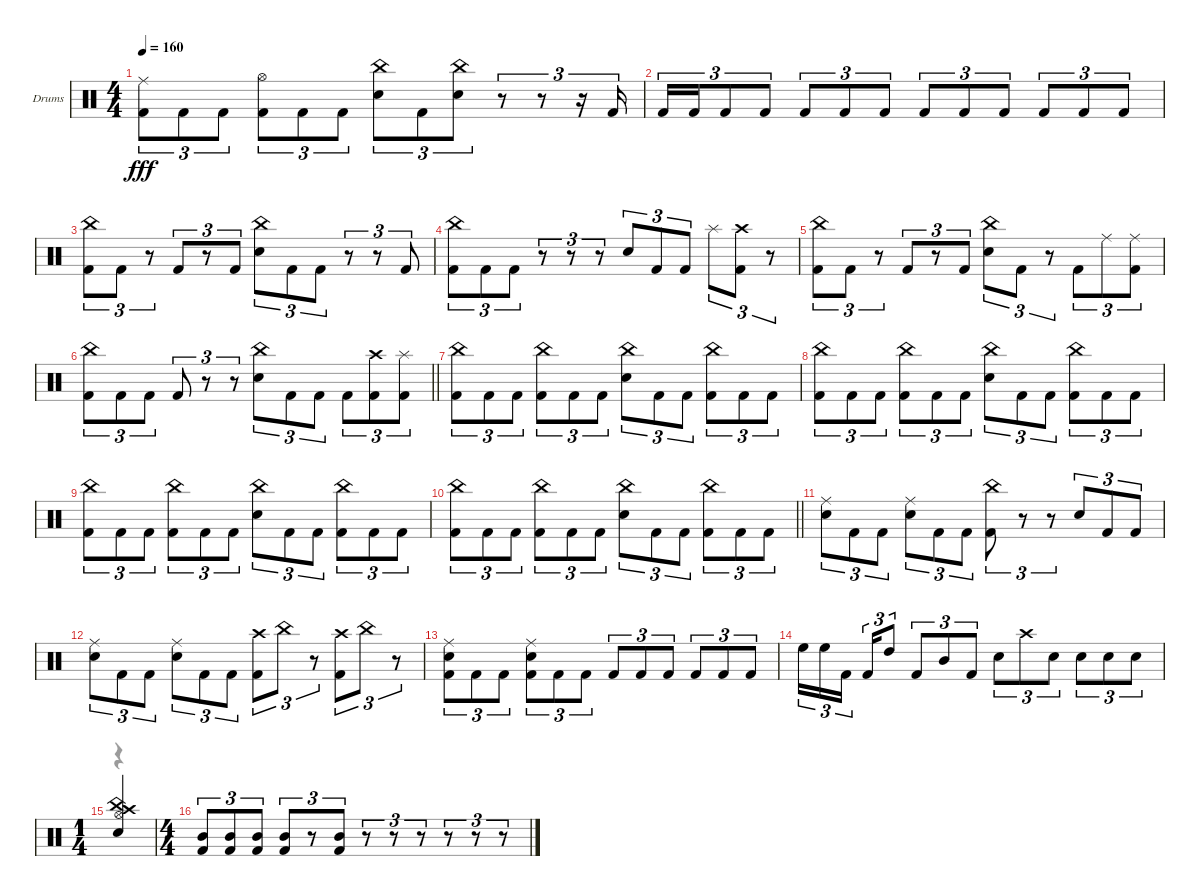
\bracketExtendMode groupsimilarinstruments
\firstSystemTrackNameOrientation horizontal
\otherSystemsTrackNameOrientation horizontal
\track ("Gigante" "Drums") {instrument percussion}
\staff {score}
\articulation defaults
\voice
\ts (4 4)
\tempo 160
\clef neutral
\ks c
("Ride (middle)" "Kick (hit) 2").8{tu (3 2) dy fff} "Kick (hit) 2".8{tu (3 2)} "Kick (hit) 2".8{tu (3 2)} ("Hi-Hat (open)" "Kick (hit) 2").8{tu (3 2)} "Kick (hit) 2".8{tu (3 2)} "Kick (hit) 2".8{tu (3 2)} ("China (hit)" "Snare (hit) 2").8{tu (3 2)} "Kick (hit) 2".8{tu (3 2)} ("China (hit)" "Snare (hit) 2").8{tu (3 2)} r.8{tu (3 2)} r.8{tu (3 2)} r.16{tu (3 2)} "Kick (hit) 2".16{tu (3 2)} |
"Kick (hit) 2".16{tu (3 2)} "Kick (hit) 2".16{tu (3 2)} "Kick (hit) 2".8{tu (3 2)} "Kick (hit) 2".8{tu (3 2)} "Kick (hit) 2".8{tu (3 2)} "Kick (hit) 2".8{tu (3 2)} "Kick (hit) 2".8{tu (3 2)} "Kick (hit) 2".8{tu (3 2)} "Kick (hit) 2".8{tu (3 2)} "Kick (hit) 2".8{tu (3 2)} "Kick (hit) 2".8{tu (3 2)} "Kick (hit) 2".8{tu (3 2)} "Kick (hit) 2".8{tu (3 2)} |
("China (hit)" "Kick (hit) 2").8{tu (3 2)} "Kick (hit) 2".8{tu (3 2)} r.8{tu (3 2)} "Kick (hit) 2".8{tu (3 2)} r.8{tu (3 2)} "Kick (hit) 2".8{tu (3 2)} ("China (hit)" "Snare (hit) 2").8{tu (3 2)} "Kick (hit) 2".8{tu (3 2)} "Kick (hit) 2".8{tu (3 2)} r.8{tu (3 2)} r.8{tu (3 2)} "Kick (hit) 2".8{tu (3 2)} |
("China (hit)" "Kick (hit) 2").8{tu (3 2)} "Kick (hit) 2".8{tu (3 2)} "Kick (hit) 2".8{tu (3 2)} r.8{tu (3 2)} r.8{tu (3 2)} r.8{tu (3 2)} "Snare (hit) 2".8{tu (3 2)} "Kick (hit) 2".8{tu (3 2)} "Kick (hit) 2".8{tu (3 2)} "Splash (hit)".8{tu (3 2)} ("Crash high (hit)" "Kick (hit) 2").8{tu (3 2)} r.8{tu (3 2)} |
("China (hit)" "Kick (hit) 2").8{tu (3 2)} "Kick (hit) 2".8{tu (3 2)} r.8{tu (3 2)} "Kick (hit) 2".8{tu (3 2)} r.8{tu (3 2)} "Kick (hit) 2".8{tu (3 2)} ("China (hit)" "Snare (hit) 2").8{tu (3 2)} "Kick (hit) 2".8{tu (3 2)} r.8{tu (3 2)} "Kick (hit) 2".8{tu (3 2)} "Ride (middle)".8{tu (3 2)} ("Ride (middle)" "Kick (hit) 2").8{tu (3 2)} |
\barLineRight lightlight
("China (hit)" "Kick (hit) 2").8{tu (3 2)} "Kick (hit) 2".8{tu (3 2)} "Kick (hit) 2".8{tu (3 2)} "Kick (hit) 2".8{tu (3 2)} r.8{tu (3 2)} r.8{tu (3 2)} ("China (hit)" "Snare (hit) 2").8{tu (3 2)} "Kick (hit) 2".8{tu (3 2)} "Kick (hit) 2".8{tu (3 2)} "Kick (hit) 2".8{tu (3 2)} ("Crash high (hit)" "Kick (hit) 2").8{tu (3 2)} ("Splash (hit)" "Kick (hit) 2").8{tu (3 2)} |
("China (hit)" "Kick (hit) 2").8{tu (3 2)} "Kick (hit) 2".8{tu (3 2)} "Kick (hit) 2".8{tu (3 2)} ("China (hit)" "Kick (hit) 2").8{tu (3 2)} "Kick (hit) 2".8{tu (3 2)} "Kick (hit) 2".8{tu (3 2)} ("China (hit)" "Snare (hit) 2").8{tu (3 2)} "Kick (hit) 2".8{tu (3 2)} "Kick (hit) 2".8{tu (3 2)} ("China (hit)" "Kick (hit) 2").8{tu (3 2)} "Kick (hit) 2".8{tu (3 2)} "Kick (hit) 2".8{tu (3 2)} |
("China (hit)" "Kick (hit) 2").8{tu (3 2)} "Kick (hit) 2".8{tu (3 2)} "Kick (hit) 2".8{tu (3 2)} ("China (hit)" "Kick (hit) 2").8{tu (3 2)} "Kick (hit) 2".8{tu (3 2)} "Kick (hit) 2".8{tu (3 2)} ("China (hit)" "Snare (hit) 2").8{tu (3 2)} "Kick (hit) 2".8{tu (3 2)} "Kick (hit) 2".8{tu (3 2)} ("China (hit)" "Kick (hit) 2").8{tu (3 2)} "Kick (hit) 2".8{tu (3 2)} "Kick (hit) 2".8{tu (3 2)} |
("China (hit)" "Kick (hit) 2").8{tu (3 2)} "Kick (hit) 2".8{tu (3 2)} "Kick (hit) 2".8{tu (3 2)} ("China (hit)" "Kick (hit) 2").8{tu (3 2)} "Kick (hit) 2".8{tu (3 2)} "Kick (hit) 2".8{tu (3 2)} ("China (hit)" "Snare (hit) 2").8{tu (3 2)} "Kick (hit) 2".8{tu (3 2)} "Kick (hit) 2".8{tu (3 2)} ("China (hit)" "Kick (hit) 2").8{tu (3 2)} "Kick (hit) 2".8{tu (3 2)} "Kick (hit) 2".8{tu (3 2)} |
\barLineRight lightlight
("China (hit)" "Kick (hit) 2").8{tu (3 2)} "Kick (hit) 2".8{tu (3 2)} "Kick (hit) 2".8{tu (3 2)} ("China (hit)" "Kick (hit) 2").8{tu (3 2)} "Kick (hit) 2".8{tu (3 2)} "Kick (hit) 2".8{tu (3 2)} ("China (hit)" "Snare (hit) 2").8{tu (3 2)} "Kick (hit) 2".8{tu (3 2)} "Kick (hit) 2".8{tu (3 2)} ("China (hit)" "Kick (hit) 2").8{tu (3 2)} "Kick (hit) 2".8{tu (3 2)} "Kick (hit) 2".8{tu (3 2)} |
("Ride (middle)" "Snare (hit) 2").8{tu (3 2)} "Kick (hit) 2".8{tu (3 2)} "Kick (hit) 2".8{tu (3 2)} ("Ride (middle)" "Snare (hit) 2").8{tu (3 2)} "Kick (hit) 2".8{tu (3 2)} "Kick (hit) 2".8{tu (3 2)} ("China (hit)" "Kick (hit) 2").8{tu (3 2)} r.8{tu (3 2)} r.8{tu (3 2)} "Snare (hit) 2".8{tu (3 2)} "Kick (hit) 2".8{tu (3 2)} "Kick (hit) 2".8{tu (3 2)} |
("Ride (middle)" "Snare (hit) 2").8{tu (3 2)} "Kick (hit) 2".8{tu (3 2)} "Kick (hit) 2".8{tu (3 2)} ("Ride (middle)" "Snare (hit) 2").8{tu (3 2)} "Kick (hit) 2".8{tu (3 2)} "Kick (hit) 2".8{tu (3 2)} ("Crash high (hit)" "Kick (hit) 2").8{tu (3 2)} "China (hit)".8{tu (3 2)} r.8{tu (3 2)} ("Crash high (hit)" "Kick (hit) 2").8{tu (3 2)} "China (hit)".8{tu (3 2)} r.8{tu (3 2)} |
("Ride (middle)" "Snare (hit) 2" "Kick (hit) 2").8{tu (3 2)} "Kick (hit) 2".8{tu (3 2)} "Kick (hit) 2".8{tu (3 2)} ("Ride (middle)" "Snare (hit) 2" "Kick (hit) 2").8{tu (3 2)} "Kick (hit) 2".8{tu (3 2)} "Kick (hit) 2".8{tu (3 2)} "Kick (hit) 2".8{tu (3 2)} "Kick (hit) 2".8{tu (3 2)} "Kick (hit) 2".8{tu (3 2)} "Kick (hit) 2".8{tu (3 2)} "Kick (hit) 2".8{tu (3 2)} "Kick (hit) 2".8{tu (3 2)} |
"High Floor Tom (hit)".16{tu (3 2)} "High Floor Tom (hit)".16{tu (3 2)} "Kick (hit) 2".16{tu (3 2)} "Kick (hit) 2".16{tu (3 2)} "High Tom (hit)".8{tu (3 2)} "Kick (hit) 2".8{tu (3 2)} "Mid Tom (hit)".8{tu (3 2)} "Kick (hit) 2".8{tu (3 2)} "Snare (hit) 2".8{tu (3 2)} "Crash high (hit)".8{tu (3 2)} "Snare (hit) 2".8{tu (3 2)} "Snare (hit) 2".8{tu (3 2)} "Snare (hit) 2".8{tu (3 2)} "Snare (hit) 2".8{tu (3 2)} |
\ts (1 4)
\beaming (8 2)
("Crash high (hit)" "China (hit)" "Hi-Hat (open)" "Snare (hit) 2").4 |
\ts (4 4)
\beaming (8 2 2 2 2)
("Mid Tom (hit)" "Kick (hit) 2").8{tu (3 2)} ("Mid Tom (hit)" "Kick (hit) 2").8{tu (3 2)} ("Mid Tom (hit)" "Kick (hit) 2").8{tu (3 2)} ("Mid Tom (hit)" "Kick (hit) 2").8{tu (3 2)} r.8{tu (3 2)} ("Mid Tom (hit)" "Kick (hit) 2").8{tu (3 2)} r.8{tu (3 2)} r.8{tu (3 2)} r.8{tu (3 2)} r.8{tu (3 2)} r.8{tu (3 2)} r.8{tu (3 2)}
\voice
\clef neutral
\ottava regular
\simile none
\ks c
|
|
|
|
|
\barLineRight lightlight
|
|
|
|
\barLineRight lightlight
|
|
|
|
|
r.4{dy mf} |
